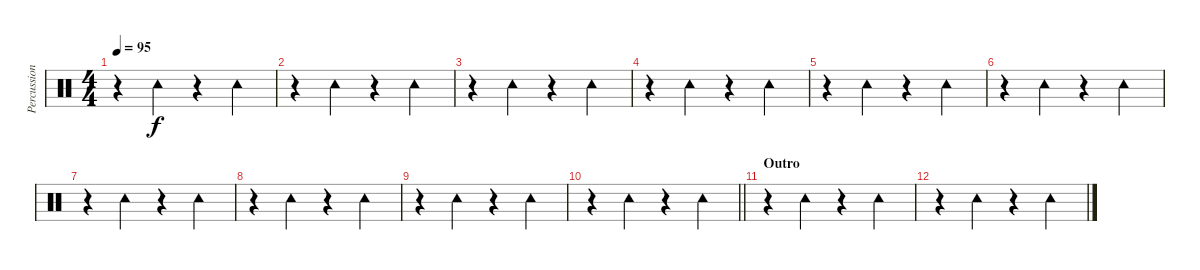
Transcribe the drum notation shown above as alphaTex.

\track ("Percussioni" "Percussion") {instrument percussion}
\staff {score}
\articulation defaults
\ts (4 4)
\tempo 95
\clef neutral
\ks c
r.4{dy f} "Tambourine (hit)".4 r.4 "Tambourine (hit)".4 |
r.4 "Tambourine (hit)".4 r.4 "Tambourine (hit)".4 |
r.4 "Tambourine (hit)".4 r.4 "Tambourine (hit)".4 |
r.4 "Tambourine (hit)".4 r.4 "Tambourine (hit)".4 |
r.4 "Tambourine (hit)".4 r.4 "Tambourine (hit)".4 |
r.4 "Tambourine (hit)".4 r.4 "Tambourine (hit)".4 |
r.4 "Tambourine (hit)".4 r.4 "Tambourine (hit)".4 |
r.4 "Tambourine (hit)".4 r.4 "Tambourine (hit)".4 |
r.4 "Tambourine (hit)".4 r.4 "Tambourine (hit)".4 |
\barLineRight lightlight
r.4 "Tambourine (hit)".4 r.4 "Tambourine (hit)".4 |
\section ("" "Outro")
r.4 "Tambourine (hit)".4 r.4 "Tambourine (hit)".4 |
r.4 "Tambourine (hit)".4 r.4 "Tambourine (hit)".4
